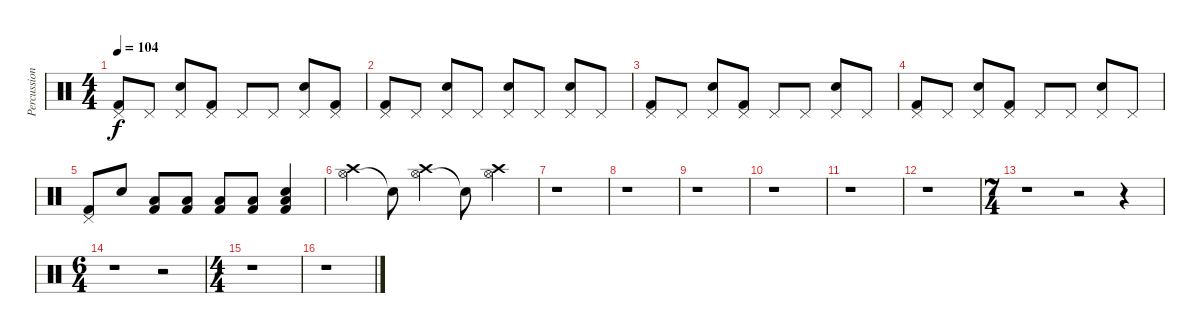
\track ("Percussion" "Percussion") {instrument percussion}
\staff {score}
\articulation defaults
\ts (4 4)
\tempo 104
\clef neutral
\ks c
("Pedal Hi-Hat (hit)" "Kick (hit) 2").8{dy f} "Pedal Hi-Hat (hit)".8 ("Pedal Hi-Hat (hit)" "Electric Snare (hit)").8 ("Pedal Hi-Hat (hit)" "Kick (hit) 2").8 "Pedal Hi-Hat (hit)".8 "Pedal Hi-Hat (hit)".8 ("Pedal Hi-Hat (hit)" "Electric Snare (hit)").8 ("Pedal Hi-Hat (hit)" "Kick (hit) 2").8 |
("Pedal Hi-Hat (hit)" "Kick (hit) 2").8 "Pedal Hi-Hat (hit)".8 ("Pedal Hi-Hat (hit)" "Electric Snare (hit)").8 "Pedal Hi-Hat (hit)".8 ("Pedal Hi-Hat (hit)" "Electric Snare (hit)").8 "Pedal Hi-Hat (hit)".8 ("Pedal Hi-Hat (hit)" "Electric Snare (hit)").8 "Pedal Hi-Hat (hit)".8 |
("Pedal Hi-Hat (hit)" "Kick (hit) 2").8 "Pedal Hi-Hat (hit)".8 ("Pedal Hi-Hat (hit)" "Electric Snare (hit)").8 ("Pedal Hi-Hat (hit)" "Kick (hit) 2").8 "Pedal Hi-Hat (hit)".8 "Pedal Hi-Hat (hit)".8 ("Pedal Hi-Hat (hit)" "Electric Snare (hit)").8 "Pedal Hi-Hat (hit)".8 |
("Pedal Hi-Hat (hit)" "Kick (hit) 2").8 "Pedal Hi-Hat (hit)".8 ("Pedal Hi-Hat (hit)" "Electric Snare (hit)").8 ("Pedal Hi-Hat (hit)" "Kick (hit) 2").8 "Pedal Hi-Hat (hit)".8 "Pedal Hi-Hat (hit)".8 ("Pedal Hi-Hat (hit)" "Electric Snare (hit)").8 "Pedal Hi-Hat (hit)".8 |
("Pedal Hi-Hat (hit)" "Kick (hit) 2").8 "Electric Snare (hit)".8 ("Kick (hit) 2" "Low Tom (hit)").8 ("Kick (hit) 2" "Low Tom (hit)").8 ("Kick (hit) 2" "Low Tom (hit)").8 ("Kick (hit) 2" "Low Tom (hit)").8 ("Electric Snare (hit)" "Kick (hit) 2" "Low Tom (hit)").4 |
("Hi-Hat (open)" "Crash high (hit)").4 "Snare (hit)"{t}.8 ("Hi-Hat (open)" "Crash high (hit)").4 "Snare (hit)"{t}.8 ("Hi-Hat (open)" "Crash high (hit)").4 |
r.1 |
r.1 |
r.1 |
r.1 |
r.1 |
r.1 |
\ts (7 4)
r.1 r.2 r.4 |
\ts (6 4)
r.1 r.2 |
\ts (4 4)
r.1 |
r.1
